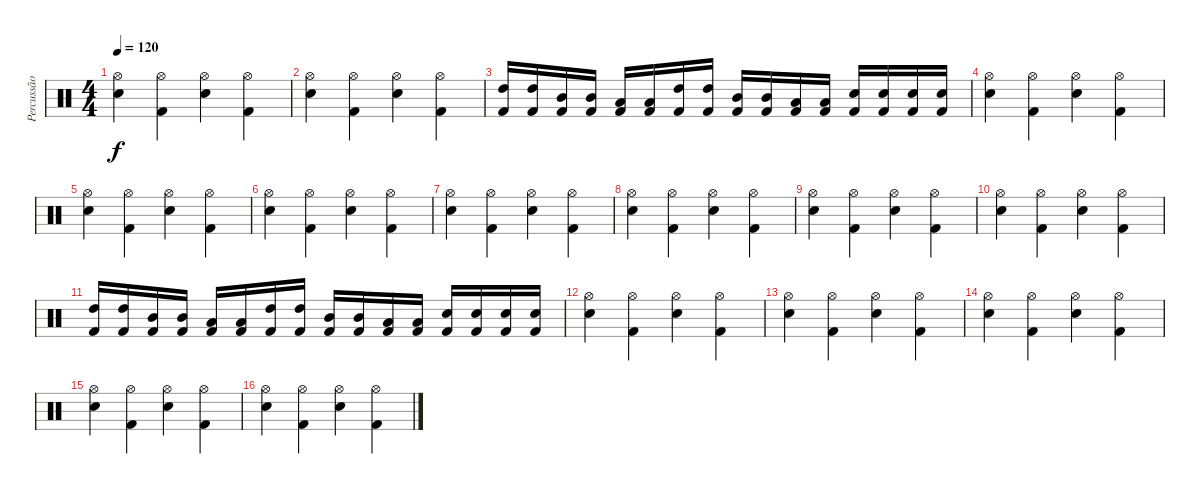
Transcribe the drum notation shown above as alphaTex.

\track ("Percussão" "Percussão") {instrument percussion}
\staff {score}
\articulation defaults
\ts (4 4)
\tempo 120
\clef neutral
\ks c
("Hi-Hat (open)" "Electric Snare (hit)").4{dy f} ("Hi-Hat (open)" "Kick (hit) 2").4 ("Hi-Hat (open)" "Electric Snare (hit)").4 ("Hi-Hat (open)" "Kick (hit) 2").4 |
("Hi-Hat (open)" "Electric Snare (hit)").4 ("Hi-Hat (open)" "Kick (hit) 2").4 ("Hi-Hat (open)" "Electric Snare (hit)").4 ("Hi-Hat (open)" "Kick (hit) 2").4 |
("Kick (hit) 2" "High Tom (hit)").16 ("Kick (hit) 2" "High Tom (hit)").16 ("Kick (hit) 2" "Mid Tom (hit)").16 ("Kick (hit) 2" "Mid Tom (hit)").16 ("Kick (hit) 2" "Low Tom (hit)").16 ("Kick (hit) 2" "Low Tom (hit)").16 ("Kick (hit) 2" "High Tom (hit)").16 ("Kick (hit) 2" "High Tom (hit)").16 ("Kick (hit) 2" "Mid Tom (hit)").16 ("Kick (hit) 2" "Mid Tom (hit)").16 ("Kick (hit) 2" "Low Tom (hit)").16 ("Kick (hit) 2" "Low Tom (hit)").16 ("Kick (hit) 2" "Electric Snare (hit)").16 ("Kick (hit) 2" "Electric Snare (hit)").16 ("Kick (hit) 2" "Electric Snare (hit)").16 ("Kick (hit) 2" "Electric Snare (hit)").16 |
("Hi-Hat (open)" "Electric Snare (hit)").4 ("Hi-Hat (open)" "Kick (hit) 2").4 ("Hi-Hat (open)" "Electric Snare (hit)").4 ("Hi-Hat (open)" "Kick (hit) 2").4 |
("Hi-Hat (open)" "Electric Snare (hit)").4 ("Hi-Hat (open)" "Kick (hit) 2").4 ("Hi-Hat (open)" "Electric Snare (hit)").4 ("Hi-Hat (open)" "Kick (hit) 2").4 |
("Hi-Hat (open)" "Electric Snare (hit)").4 ("Hi-Hat (open)" "Kick (hit) 2").4 ("Hi-Hat (open)" "Electric Snare (hit)").4 ("Hi-Hat (open)" "Kick (hit) 2").4 |
("Hi-Hat (open)" "Electric Snare (hit)").4 ("Hi-Hat (open)" "Kick (hit) 2").4 ("Hi-Hat (open)" "Electric Snare (hit)").4 ("Hi-Hat (open)" "Kick (hit) 2").4 |
("Hi-Hat (open)" "Electric Snare (hit)").4 ("Hi-Hat (open)" "Kick (hit) 2").4 ("Hi-Hat (open)" "Electric Snare (hit)").4 ("Hi-Hat (open)" "Kick (hit) 2").4 |
("Hi-Hat (open)" "Electric Snare (hit)").4 ("Hi-Hat (open)" "Kick (hit) 2").4 ("Hi-Hat (open)" "Electric Snare (hit)").4 ("Hi-Hat (open)" "Kick (hit) 2").4 |
("Hi-Hat (open)" "Electric Snare (hit)").4 ("Hi-Hat (open)" "Kick (hit) 2").4 ("Hi-Hat (open)" "Electric Snare (hit)").4 ("Hi-Hat (open)" "Kick (hit) 2").4 |
("Kick (hit) 2" "High Tom (hit)").16 ("Kick (hit) 2" "High Tom (hit)").16 ("Kick (hit) 2" "Mid Tom (hit)").16 ("Kick (hit) 2" "Mid Tom (hit)").16 ("Kick (hit) 2" "Low Tom (hit)").16 ("Kick (hit) 2" "Low Tom (hit)").16 ("Kick (hit) 2" "High Tom (hit)").16 ("Kick (hit) 2" "High Tom (hit)").16 ("Kick (hit) 2" "Mid Tom (hit)").16 ("Kick (hit) 2" "Mid Tom (hit)").16 ("Kick (hit) 2" "Low Tom (hit)").16 ("Kick (hit) 2" "Low Tom (hit)").16 ("Kick (hit) 2" "Electric Snare (hit)").16 ("Kick (hit) 2" "Electric Snare (hit)").16 ("Kick (hit) 2" "Electric Snare (hit)").16 ("Kick (hit) 2" "Electric Snare (hit)").16 |
("Hi-Hat (open)" "Electric Snare (hit)").4 ("Hi-Hat (open)" "Kick (hit) 2").4 ("Hi-Hat (open)" "Electric Snare (hit)").4 ("Hi-Hat (open)" "Kick (hit) 2").4 |
("Hi-Hat (open)" "Electric Snare (hit)").4 ("Hi-Hat (open)" "Kick (hit) 2").4 ("Hi-Hat (open)" "Electric Snare (hit)").4 ("Hi-Hat (open)" "Kick (hit) 2").4 |
("Hi-Hat (open)" "Electric Snare (hit)").4 ("Hi-Hat (open)" "Kick (hit) 2").4 ("Hi-Hat (open)" "Electric Snare (hit)").4 ("Hi-Hat (open)" "Kick (hit) 2").4 |
("Hi-Hat (open)" "Electric Snare (hit)").4 ("Hi-Hat (open)" "Kick (hit) 2").4 ("Hi-Hat (open)" "Electric Snare (hit)").4 ("Hi-Hat (open)" "Kick (hit) 2").4 |
("Hi-Hat (open)" "Electric Snare (hit)").4 ("Hi-Hat (open)" "Kick (hit) 2").4 ("Hi-Hat (open)" "Electric Snare (hit)").4 ("Hi-Hat (open)" "Kick (hit) 2").4
